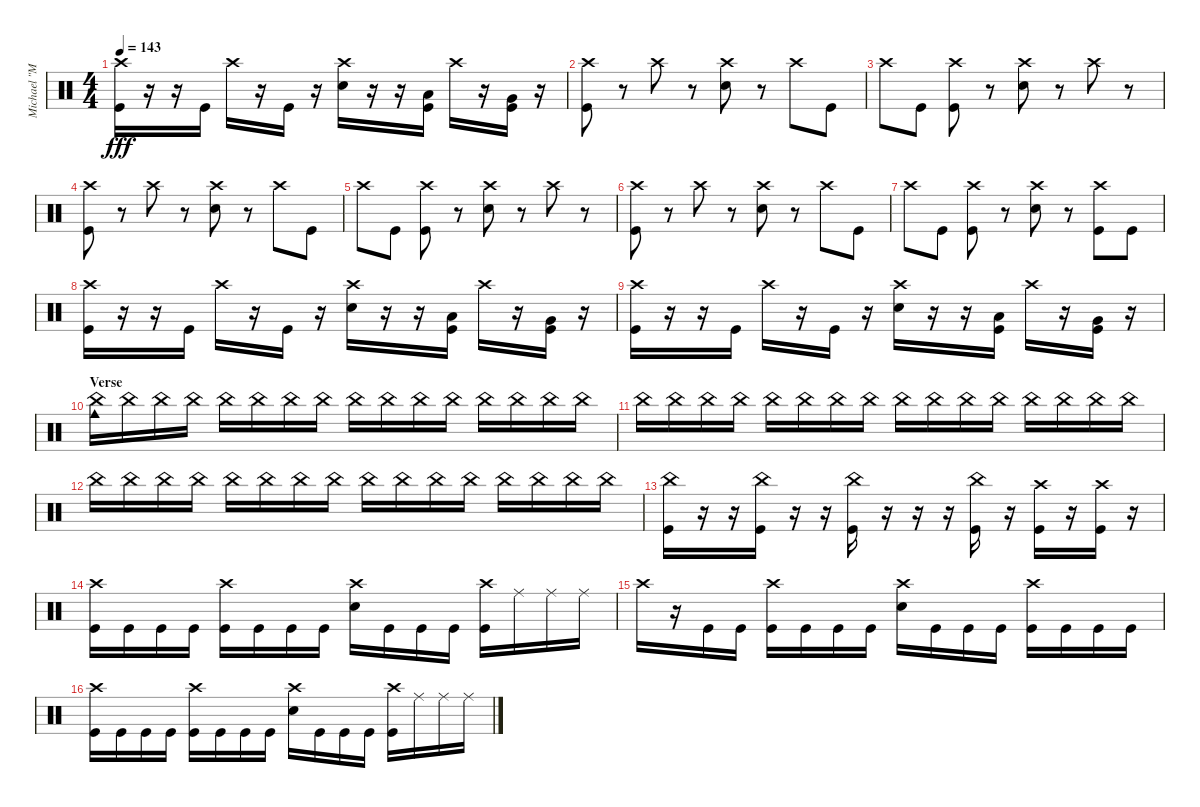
\track ("Michael \"Moose\" Thomas" "Michael \"M") {instrument percussion}
\staff {score}
\articulation defaults
\ts (4 4)
\tempo 143
\clef neutral
\ks c
("Kick (hit)" "Crash high (hit)").16{dy fff} r.16 r.16 "Kick (hit)".16 "Crash high (hit)".16 r.16 "Kick (hit)".16 r.16 ("Snare (hit) 2" "Crash high (hit)").16 r.16 r.16 ("Kick (hit)" "Low Tom (hit)").16 "Crash high (hit)".16 r.16 ("Kick (hit)" "Very Low Tom (hit)").16 r.16 |
("Kick (hit)" "Crash high (hit)").8 r.8 "Crash high (hit)".8 r.8 ("Snare (hit) 2" "Crash high (hit)").8 r.8 "Crash high (hit)".8 "Kick (hit)".8 |
"Crash high (hit)".8 "Kick (hit)".8 ("Kick (hit)" "Crash high (hit)").8 r.8 ("Snare (hit) 2" "Crash high (hit)").8 r.8 "Crash high (hit)".8 r.8 |
("Kick (hit)" "Crash high (hit)").8 r.8 "Crash high (hit)".8 r.8 ("Snare (hit) 2" "Crash high (hit)").8 r.8 "Crash high (hit)".8 "Kick (hit)".8 |
"Crash high (hit)".8 "Kick (hit)".8 ("Kick (hit)" "Crash high (hit)").8 r.8 ("Snare (hit) 2" "Crash high (hit)").8 r.8 "Crash high (hit)".8 r.8 |
("Kick (hit)" "Crash high (hit)").8 r.8 "Crash high (hit)".8 r.8 ("Snare (hit) 2" "Crash high (hit)").8 r.8 "Crash high (hit)".8 "Kick (hit)".8 |
"Crash high (hit)".8 "Kick (hit)".8 ("Kick (hit)" "Crash high (hit)").8 r.8 ("Snare (hit) 2" "Crash high (hit)").8 r.8 ("Crash high (hit)" "Kick (hit)").8 "Kick (hit)".8 |
("Kick (hit)" "Crash high (hit)").16 r.16 r.16 "Kick (hit)".16 "Crash high (hit)".16 r.16 "Kick (hit)".16 r.16 ("Snare (hit) 2" "Crash high (hit)").16 r.16 r.16 ("Kick (hit)" "Low Tom (hit)").16 "Crash high (hit)".16 r.16 ("Kick (hit)" "Very Low Tom (hit)").16 r.16 |
("Kick (hit)" "Crash high (hit)").16 r.16 r.16 "Kick (hit)".16 "Crash high (hit)".16 r.16 "Kick (hit)".16 r.16 ("Snare (hit) 2" "Crash high (hit)").16 r.16 r.16 ("Kick (hit)" "Low Tom (hit)").16 "Crash high (hit)".16 r.16 ("Kick (hit)" "Very Low Tom (hit)").16 r.16 |
\section ("" "Verse")
("Cowbell medium (hit)" "China (hit)").16 "China (hit)".16 "China (hit)".16 "China (hit)".16 "China (hit)".16 "China (hit)".16 "China (hit)".16 "China (hit)".16 "China (hit)".16 "China (hit)".16 "China (hit)".16 "China (hit)".16 "China (hit)".16 "China (hit)".16 "China (hit)".16 "China (hit)".16 |
"China (hit)".16 "China (hit)".16 "China (hit)".16 "China (hit)".16 "China (hit)".16 "China (hit)".16 "China (hit)".16 "China (hit)".16 "China (hit)".16 "China (hit)".16 "China (hit)".16 "China (hit)".16 "China (hit)".16 "China (hit)".16 "China (hit)".16 "China (hit)".16 |
"China (hit)".16 "China (hit)".16 "China (hit)".16 "China (hit)".16 "China (hit)".16 "China (hit)".16 "China (hit)".16 "China (hit)".16 "China (hit)".16 "China (hit)".16 "China (hit)".16 "China (hit)".16 "China (hit)".16 "China (hit)".16 "China (hit)".16 "China (hit)".16 |
("Kick (hit)" "China (hit)").16 r.16 r.16 ("Kick (hit)" "China (hit)").16 r.16 r.16 ("Kick (hit)" "China (hit)").16 r.16 r.16 r.16 ("Kick (hit)" "China (hit)").16 r.16 ("Kick (hit)" "Crash high (hit)").16 r.16 ("Kick (hit)" "Crash high (hit)").16 r.16 |
("Kick (hit)" "Crash high (hit)").16 "Kick (hit)".16 "Kick (hit)".16 "Kick (hit)".16 ("Kick (hit)" "Crash high (hit)").16 "Kick (hit)".16 "Kick (hit)".16 "Kick (hit)".16 ("Snare (hit) 2" "Crash high (hit)").16 "Kick (hit)".16 "Kick (hit)".16 "Kick (hit)".16 ("Kick (hit)" "Crash high (hit)").16 "Ride (middle)".16 "Ride (middle)".16 "Ride (middle)".16 |
"Crash high (hit)".16 r.16 "Kick (hit)".16 "Kick (hit)".16 ("Kick (hit)" "Crash high (hit)").16 "Kick (hit)".16 "Kick (hit)".16 "Kick (hit)".16 ("Snare (hit) 2" "Crash high (hit)").16 "Kick (hit)".16 "Kick (hit)".16 "Kick (hit)".16 ("Kick (hit)" "Crash high (hit)").16 "Kick (hit)".16 "Kick (hit)".16 "Kick (hit)".16 |
("Kick (hit)" "Crash high (hit)").16 "Kick (hit)".16 "Kick (hit)".16 "Kick (hit)".16 ("Kick (hit)" "Crash high (hit)").16 "Kick (hit)".16 "Kick (hit)".16 "Kick (hit)".16 ("Snare (hit) 2" "Crash high (hit)").16 "Kick (hit)".16 "Kick (hit)".16 "Kick (hit)".16 ("Kick (hit)" "Crash high (hit)").16 "Ride (middle)".16 "Ride (middle)".16 "Ride (middle)".16
